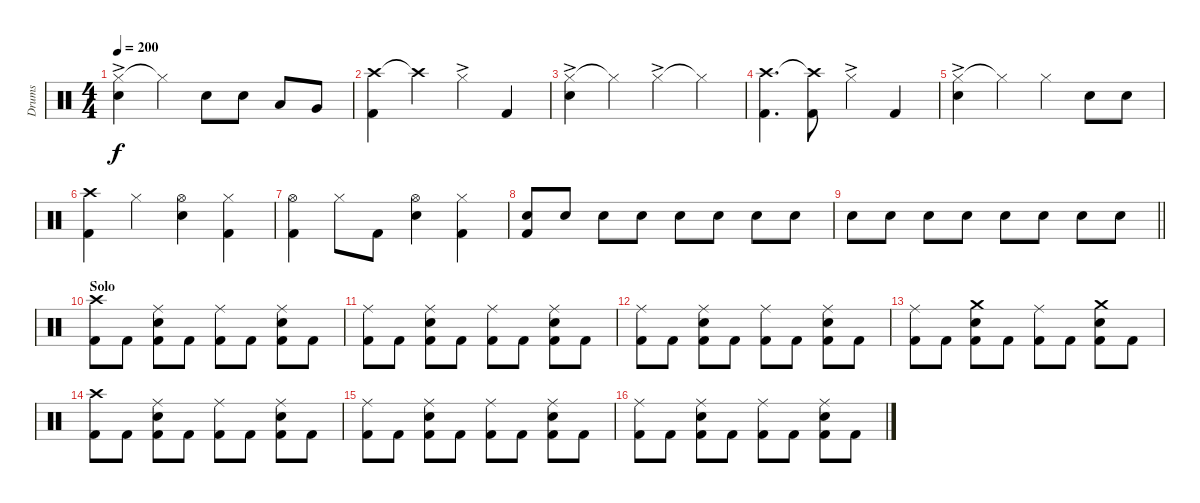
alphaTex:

\track ("Drums" "Drums") {instrument percussion}
\staff {score}
\articulation defaults
\ts (4 4)
\tempo 200
\clef neutral
\ks c
("Hi-Hat (closed)"{ac} "Snare (hit) 2").4{dy f} "Hi-Hat (closed)"{t}.4 "Snare (hit) 2".8 "Snare (hit) 2".8 "Low Tom (hit)".8 "Very Low Tom (hit)".8 |
("Crash high (hit)" "Kick (hit) 2").4 "Crash high (hit)"{t}.4 "Hi-Hat (closed)"{ac}.4 "Kick (hit) 2".4 |
("Hi-Hat (closed)"{ac} "Snare (hit) 2").4 "Hi-Hat (closed)"{t}.4 "Hi-Hat (closed)"{ac}.4 "Hi-Hat (closed)"{t}.4 |
("Crash high (hit)" "Kick (hit) 2").4{d} ("Crash high (hit)"{t} "Kick (hit) 2").8 "Hi-Hat (closed)"{ac}.4 "Kick (hit) 2".4 |
("Hi-Hat (closed)"{ac} "Snare (hit) 2").4 "Hi-Hat (closed)"{t}.4 "Hi-Hat (closed)".4 "Snare (hit) 2".8 "Snare (hit) 2".8 |
("Crash high (hit)" "Kick (hit) 2").4 "Hi-Hat (closed)".4 ("Hi-Hat (open)" "Snare (hit) 2").4 ("Hi-Hat (closed)" "Kick (hit) 2").4 |
("Hi-Hat (open)" "Kick (hit) 2").4 "Hi-Hat (closed)".8 "Kick (hit) 2".8 ("Hi-Hat (open)" "Snare (hit) 2").4 ("Hi-Hat (closed)" "Kick (hit) 2").4 |
("Snare (hit) 2" "Kick (hit) 2").8 "Snare (hit) 2".8 "Snare (hit) 2".8 "Snare (hit) 2".8 "Snare (hit) 2".8 "Snare (hit) 2".8 "Snare (hit) 2".8 "Snare (hit) 2".8 |
\barLineRight lightlight "Snare (hit) 2".8 "Snare (hit) 2".8 "Snare (hit) 2".8 "Snare (hit) 2".8 "Snare (hit) 2".8 "Snare (hit) 2".8 "Snare (hit) 2".8 "Snare (hit) 2".8
|
\section ("" "Solo")
("Crash high (hit)" "Kick (hit) 2").8 "Kick (hit) 2".8 ("Ride (middle)" "Snare (hit) 2" "Kick (hit) 2").8 "Kick (hit) 2".8 ("Ride (middle)" "Kick (hit) 2").8 "Kick (hit) 2".8 ("Ride (middle)" "Snare (hit) 2" "Kick (hit) 2").8 "Kick (hit) 2".8 |
("Ride (middle)" "Kick (hit) 2").8 "Kick (hit) 2".8 ("Ride (middle)" "Snare (hit) 2" "Kick (hit) 2").8 "Kick (hit) 2".8 ("Ride (middle)" "Kick (hit) 2").8 "Kick (hit) 2".8 ("Ride (middle)" "Snare (hit) 2" "Kick (hit) 2").8 "Kick (hit) 2".8 |
("Ride (middle)" "Kick (hit) 2").8 "Kick (hit) 2".8 ("Ride (middle)" "Snare (hit) 2" "Kick (hit) 2").8 "Kick (hit) 2".8 ("Ride (middle)" "Kick (hit) 2").8 "Kick (hit) 2".8 ("Ride (middle)" "Snare (hit) 2" "Kick (hit) 2").8 "Kick (hit) 2".8 |
("Ride (middle)" "Kick (hit) 2").8 "Kick (hit) 2".8 ("Crash medium (hit)" "Snare (hit) 2" "Kick (hit) 2").8 "Kick (hit) 2".8 ("Ride (middle)" "Kick (hit) 2").8 "Kick (hit) 2".8 ("Crash medium (hit)" "Snare (hit) 2" "Kick (hit) 2").8 "Kick (hit) 2".8 |
("Crash high (hit)" "Kick (hit) 2").8 "Kick (hit) 2".8 ("Ride (middle)" "Snare (hit) 2" "Kick (hit) 2").8 "Kick (hit) 2".8 ("Ride (middle)" "Kick (hit) 2").8 "Kick (hit) 2".8 ("Ride (middle)" "Snare (hit) 2" "Kick (hit) 2").8 "Kick (hit) 2".8 |
("Ride (middle)" "Kick (hit) 2").8 "Kick (hit) 2".8 ("Ride (middle)" "Snare (hit) 2" "Kick (hit) 2").8 "Kick (hit) 2".8 ("Ride (middle)" "Kick (hit) 2").8 "Kick (hit) 2".8 ("Ride (middle)" "Snare (hit) 2" "Kick (hit) 2").8 "Kick (hit) 2".8 |
("Ride (middle)" "Kick (hit) 2").8 "Kick (hit) 2".8 ("Ride (middle)" "Snare (hit) 2" "Kick (hit) 2").8 "Kick (hit) 2".8 ("Ride (middle)" "Kick (hit) 2").8 "Kick (hit) 2".8 ("Ride (middle)" "Snare (hit) 2" "Kick (hit) 2").8 "Kick (hit) 2".8
